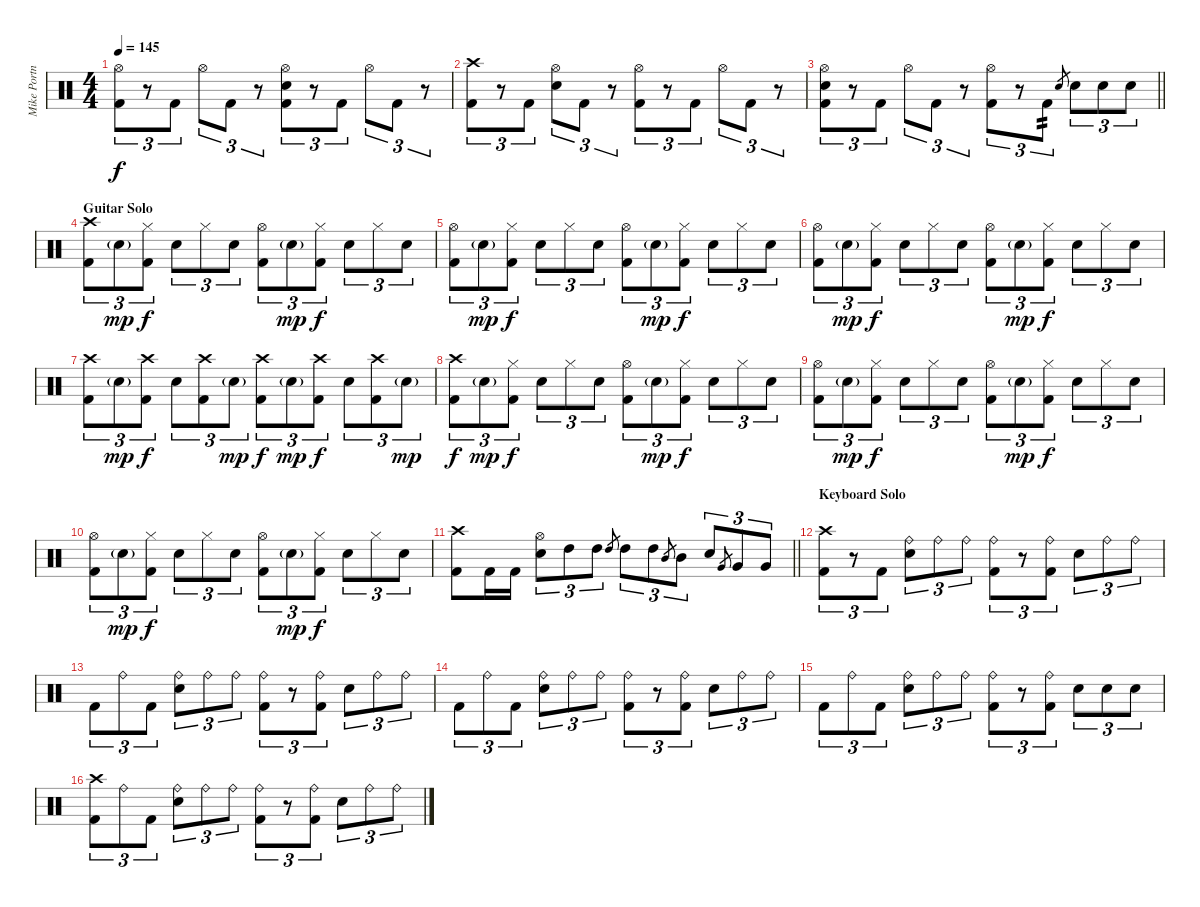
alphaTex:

\track ("Mike Portnoy" "Mike Portn") {instrument percussion}
\staff {score}
\articulation defaults
\ts (4 4)
\tempo 145
\clef neutral
\ks c
("Hi-Hat (open)" "Kick (hit) 2").8{tu (3 2) dy f} r.8{tu (3 2)} "Kick (hit) 2".8{tu (3 2)} "Hi-Hat (open)".8{tu (3 2)} "Kick (hit) 2".8{tu (3 2)} r.8{tu (3 2)} ("Hi-Hat (open)" "Electric Snare (hit)" "Kick (hit) 2").8{tu (3 2)} r.8{tu (3 2)} "Kick (hit) 2".8{tu (3 2)} "Hi-Hat (open)".8{tu (3 2)} "Kick (hit) 2".8{tu (3 2)} r.8{tu (3 2)} |
("Crash high (hit)" "Kick (hit) 2").8{tu (3 2)} r.8{tu (3 2)} "Kick (hit) 2".8{tu (3 2)} ("Hi-Hat (open)" "Electric Snare (hit)").8{tu (3 2)} "Kick (hit) 2".8{tu (3 2)} r.8{tu (3 2)} ("Hi-Hat (open)" "Kick (hit) 2").8{tu (3 2)} r.8{tu (3 2)} "Kick (hit) 2".8{tu (3 2)} "Hi-Hat (open)".8{tu (3 2)} "Kick (hit) 2".8{tu (3 2)} r.8{tu (3 2)} |
\barLineRight lightlight
("Hi-Hat (open)" "Electric Snare (hit)" "Kick (hit) 2").8{tu (3 2)} r.8{tu (3 2)} "Kick (hit) 2".8{tu (3 2)} "Hi-Hat (open)".8{tu (3 2)} "Kick (hit) 2".8{tu (3 2)} r.8{tu (3 2)} ("Hi-Hat (open)" "Kick (hit) 2").8{tu (3 2)} r.8{tu (3 2)} "Kick (hit) 2".8{tu (3 2) tp 2} "Electric Snare (hit)".8{gr} "Electric Snare (hit)".8{tu (3 2)} "Electric Snare (hit)".8{tu (3 2)} "Electric Snare (hit)".8{tu (3 2)} |
\section ("" "Guitar Solo")
("Crash high (hit)" "Kick (hit) 2").8{tu (3 2)} "Electric Snare (hit)"{g}.8{tu (3 2) dy mp} ("Hi-Hat (closed)" "Kick (hit) 2").8{tu (3 2) dy f} "Electric Snare (hit)".8{tu (3 2)} "Hi-Hat (closed)".8{tu (3 2)} "Electric Snare (hit)".8{tu (3 2)} ("Hi-Hat (open)" "Kick (hit) 2").8{tu (3 2)} "Electric Snare (hit)"{g}.8{tu (3 2) dy mp} ("Hi-Hat (closed)" "Kick (hit) 2").8{tu (3 2) dy f} "Electric Snare (hit)".8{tu (3 2)} "Hi-Hat (closed)".8{tu (3 2)} "Electric Snare (hit)".8{tu (3 2)} |
("Hi-Hat (open)" "Kick (hit) 2").8{tu (3 2)} "Electric Snare (hit)"{g}.8{tu (3 2) dy mp} ("Hi-Hat (closed)" "Kick (hit) 2").8{tu (3 2) dy f} "Electric Snare (hit)".8{tu (3 2)} "Hi-Hat (closed)".8{tu (3 2)} "Electric Snare (hit)".8{tu (3 2)} ("Hi-Hat (open)" "Kick (hit) 2").8{tu (3 2)} "Electric Snare (hit)"{g}.8{tu (3 2) dy mp} ("Hi-Hat (closed)" "Kick (hit) 2").8{tu (3 2) dy f} "Electric Snare (hit)".8{tu (3 2)} "Hi-Hat (closed)".8{tu (3 2)} "Electric Snare (hit)".8{tu (3 2)} |
("Hi-Hat (open)" "Kick (hit) 2").8{tu (3 2)} "Electric Snare (hit)"{g}.8{tu (3 2) dy mp} ("Hi-Hat (closed)" "Kick (hit) 2").8{tu (3 2) dy f} "Electric Snare (hit)".8{tu (3 2)} "Hi-Hat (closed)".8{tu (3 2)} "Electric Snare (hit)".8{tu (3 2)} ("Hi-Hat (open)" "Kick (hit) 2").8{tu (3 2)} "Electric Snare (hit)"{g}.8{tu (3 2) dy mp} ("Hi-Hat (closed)" "Kick (hit) 2").8{tu (3 2) dy f} "Electric Snare (hit)".8{tu (3 2)} "Hi-Hat (closed)".8{tu (3 2)} "Electric Snare (hit)".8{tu (3 2)} |
("Crash high (hit)" "Kick (hit) 2").8{tu (3 2)} "Electric Snare (hit)"{g}.8{tu (3 2) dy mp} ("Crash high (hit)" "Kick (hit) 2").8{tu (3 2) dy f} "Electric Snare (hit)".8{tu (3 2)} ("Crash high (hit)" "Kick (hit) 2").8{tu (3 2)} "Electric Snare (hit)"{g}.8{tu (3 2) dy mp} ("Crash high (hit)" "Kick (hit) 2").8{tu (3 2) dy f} "Electric Snare (hit)"{g}.8{tu (3 2) dy mp} ("Crash high (hit)" "Kick (hit) 2").8{tu (3 2) dy f} "Electric Snare (hit)".8{tu (3 2)} ("Crash high (hit)" "Kick (hit) 2").8{tu (3 2)} "Electric Snare (hit)"{g}.8{tu (3 2) dy mp} |
("Crash high (hit)" "Kick (hit) 2").8{tu (3 2) dy f} "Electric Snare (hit)"{g}.8{tu (3 2) dy mp} ("Hi-Hat (closed)" "Kick (hit) 2").8{tu (3 2) dy f} "Electric Snare (hit)".8{tu (3 2)} "Hi-Hat (closed)".8{tu (3 2)} "Electric Snare (hit)".8{tu (3 2)} ("Hi-Hat (open)" "Kick (hit) 2").8{tu (3 2)} "Electric Snare (hit)"{g}.8{tu (3 2) dy mp} ("Hi-Hat (closed)" "Kick (hit) 2").8{tu (3 2) dy f} "Electric Snare (hit)".8{tu (3 2)} "Hi-Hat (closed)".8{tu (3 2)} "Electric Snare (hit)".8{tu (3 2)} |
("Hi-Hat (open)" "Kick (hit) 2").8{tu (3 2)} "Electric Snare (hit)"{g}.8{tu (3 2) dy mp} ("Hi-Hat (closed)" "Kick (hit) 2").8{tu (3 2) dy f} "Electric Snare (hit)".8{tu (3 2)} "Hi-Hat (closed)".8{tu (3 2)} "Electric Snare (hit)".8{tu (3 2)} ("Hi-Hat (open)" "Kick (hit) 2").8{tu (3 2)} "Electric Snare (hit)"{g}.8{tu (3 2) dy mp} ("Hi-Hat (closed)" "Kick (hit) 2").8{tu (3 2) dy f} "Electric Snare (hit)".8{tu (3 2)} "Hi-Hat (closed)".8{tu (3 2)} "Electric Snare (hit)".8{tu (3 2)} |
("Hi-Hat (open)" "Kick (hit) 2").8{tu (3 2)} "Electric Snare (hit)"{g}.8{tu (3 2) dy mp} ("Hi-Hat (closed)" "Kick (hit) 2").8{tu (3 2) dy f} "Electric Snare (hit)".8{tu (3 2)} "Hi-Hat (closed)".8{tu (3 2)} "Electric Snare (hit)".8{tu (3 2)} ("Hi-Hat (open)" "Kick (hit) 2").8{tu (3 2)} "Electric Snare (hit)"{g}.8{tu (3 2) dy mp} ("Hi-Hat (closed)" "Kick (hit) 2").8{tu (3 2) dy f} "Electric Snare (hit)".8{tu (3 2)} "Hi-Hat (closed)".8{tu (3 2)} "Electric Snare (hit)".8{tu (3 2)} |
\barLineRight lightlight
("Crash high (hit)" "Kick (hit) 2").8 "Kick (hit) 2".16 "Kick (hit) 2".16 ("Hi-Hat (open)" "Electric Snare (hit)").8{tu (3 2)} "High Tom (hit)".8{tu (3 2)} "High Tom (hit)".8{tu (3 2)} "High Tom (hit)".8{gr} "High Tom (hit)".8{tu (3 2)} "High Tom (hit)".8{tu (3 2)} "Mid Tom (hit)".8{gr} "Mid Tom (hit)".8{tu (3 2)} "Electric Snare (hit)".8{tu (3 2)} "Very Low Tom (hit)".8{gr} "Very Low Tom (hit)".8{tu (3 2)} "Very Low Tom (hit)".8{tu (3 2)} |
\section ("" "Keyboard Solo")
("Crash high (hit)" "Kick (hit) 2").8{tu (3 2)} r.8{tu (3 2)} "Kick (hit) 2".8{tu (3 2)} ("Ride (bell)" "Electric Snare (hit)").8{tu (3 2)} "Ride (bell)".8{tu (3 2)} "Ride (bell)".8{tu (3 2)} ("Ride (bell)" "Kick (hit) 2").8{tu (3 2)} r.8{tu (3 2)} ("Ride (bell)" "Kick (hit) 2").8{tu (3 2)} "Electric Snare (hit)".8{tu (3 2)} "Ride (bell)".8{tu (3 2)} "Ride (bell)".8{tu (3 2)} |
"Kick (hit) 2".8{tu (3 2)} "Ride (bell)".8{tu (3 2)} "Kick (hit) 2".8{tu (3 2)} ("Ride (bell)" "Electric Snare (hit)").8{tu (3 2)} "Ride (bell)".8{tu (3 2)} "Ride (bell)".8{tu (3 2)} ("Ride (bell)" "Kick (hit) 2").8{tu (3 2)} r.8{tu (3 2)} ("Ride (bell)" "Kick (hit) 2").8{tu (3 2)} "Electric Snare (hit)".8{tu (3 2)} "Ride (bell)".8{tu (3 2)} "Ride (bell)".8{tu (3 2)} |
"Kick (hit) 2".8{tu (3 2)} "Ride (bell)".8{tu (3 2)} "Kick (hit) 2".8{tu (3 2)} ("Ride (bell)" "Electric Snare (hit)").8{tu (3 2)} "Ride (bell)".8{tu (3 2)} "Ride (bell)".8{tu (3 2)} ("Ride (bell)" "Kick (hit) 2").8{tu (3 2)} r.8{tu (3 2)} ("Ride (bell)" "Kick (hit) 2").8{tu (3 2)} "Electric Snare (hit)".8{tu (3 2)} "Ride (bell)".8{tu (3 2)} "Ride (bell)".8{tu (3 2)} |
"Kick (hit) 2".8{tu (3 2)} "Ride (bell)".8{tu (3 2)} "Kick (hit) 2".8{tu (3 2)} ("Ride (bell)" "Electric Snare (hit)").8{tu (3 2)} "Ride (bell)".8{tu (3 2)} "Ride (bell)".8{tu (3 2)} ("Ride (bell)" "Kick (hit) 2").8{tu (3 2)} r.8{tu (3 2)} ("Ride (bell)" "Kick (hit) 2").8{tu (3 2)} "Electric Snare (hit)".8{tu (3 2)} "Electric Snare (hit)".8{tu (3 2)} "Electric Snare (hit)".8{tu (3 2)} |
("Crash high (hit)" "Kick (hit) 2").8{tu (3 2)} "Ride (bell)".8{tu (3 2)} "Kick (hit) 2".8{tu (3 2)} ("Ride (bell)" "Electric Snare (hit)").8{tu (3 2)} "Ride (bell)".8{tu (3 2)} "Ride (bell)".8{tu (3 2)} ("Ride (bell)" "Kick (hit) 2").8{tu (3 2)} r.8{tu (3 2)} ("Ride (bell)" "Kick (hit) 2").8{tu (3 2)} "Electric Snare (hit)".8{tu (3 2)} "Ride (bell)".8{tu (3 2)} "Ride (bell)".8{tu (3 2)}
